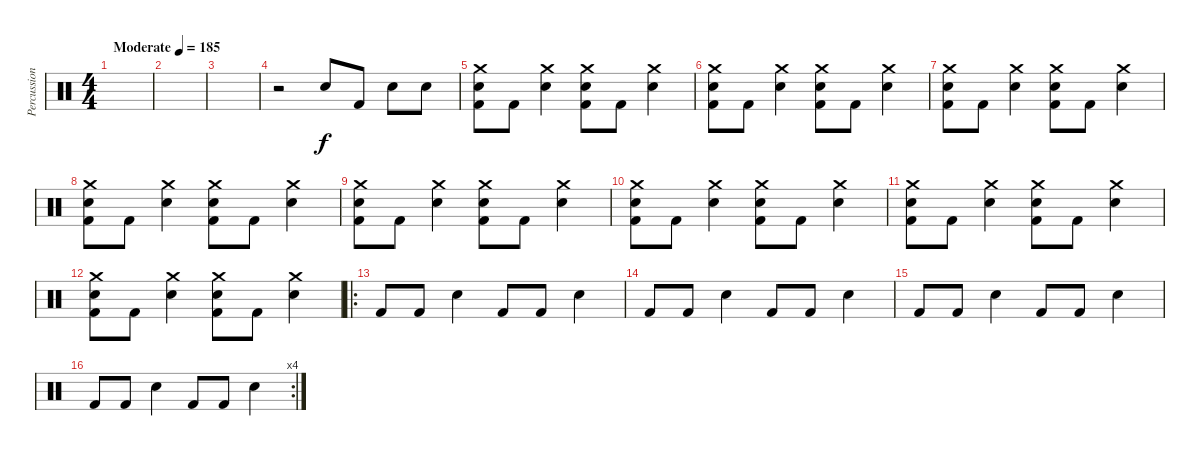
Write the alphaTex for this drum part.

\track ("Percussion" "Percussion") {instrument percussion}
\staff {score}
\articulation defaults
\ts (4 4)
\tempo (185 "Moderate")
\clef neutral
\ks c
|
|
|
r.2 "Snare (hit) 2".8 "Kick (hit) 2".8 "Snare (hit) 2".8 "Snare (hit) 2".8 |
("Crash medium (hit)" "Snare (hit) 2" "Kick (hit) 2").8 "Kick (hit) 2".8 ("Crash medium (hit)" "Snare (hit) 2").4 ("Crash medium (hit)" "Snare (hit) 2" "Kick (hit) 2").8 "Kick (hit) 2".8 ("Crash medium (hit)" "Snare (hit) 2").4 |
("Crash medium (hit)" "Snare (hit) 2" "Kick (hit) 2").8 "Kick (hit) 2".8 ("Crash medium (hit)" "Snare (hit) 2").4 ("Crash medium (hit)" "Snare (hit) 2" "Kick (hit) 2").8 "Kick (hit) 2".8 ("Crash medium (hit)" "Snare (hit) 2").4 |
("Crash medium (hit)" "Snare (hit) 2" "Kick (hit) 2").8 "Kick (hit) 2".8 ("Crash medium (hit)" "Snare (hit) 2").4 ("Crash medium (hit)" "Snare (hit) 2" "Kick (hit) 2").8 "Kick (hit) 2".8 ("Crash medium (hit)" "Snare (hit) 2").4 |
("Crash medium (hit)" "Snare (hit) 2" "Kick (hit) 2").8 "Kick (hit) 2".8 ("Crash medium (hit)" "Snare (hit) 2").4 ("Crash medium (hit)" "Snare (hit) 2" "Kick (hit) 2").8 "Kick (hit) 2".8 ("Crash medium (hit)" "Snare (hit) 2").4 |
("Crash medium (hit)" "Snare (hit) 2" "Kick (hit) 2").8 "Kick (hit) 2".8 ("Crash medium (hit)" "Snare (hit) 2").4 ("Crash medium (hit)" "Snare (hit) 2" "Kick (hit) 2").8 "Kick (hit) 2".8 ("Crash medium (hit)" "Snare (hit) 2").4 |
("Crash medium (hit)" "Snare (hit) 2" "Kick (hit) 2").8 "Kick (hit) 2".8 ("Crash medium (hit)" "Snare (hit) 2").4 ("Crash medium (hit)" "Snare (hit) 2" "Kick (hit) 2").8 "Kick (hit) 2".8 ("Crash medium (hit)" "Snare (hit) 2").4 |
("Crash medium (hit)" "Snare (hit) 2" "Kick (hit) 2").8 "Kick (hit) 2".8 ("Crash medium (hit)" "Snare (hit) 2").4 ("Crash medium (hit)" "Snare (hit) 2" "Kick (hit) 2").8 "Kick (hit) 2".8 ("Crash medium (hit)" "Snare (hit) 2").4 |
("Crash medium (hit)" "Snare (hit) 2" "Kick (hit) 2").8 "Kick (hit) 2".8 ("Crash medium (hit)" "Snare (hit) 2").4 ("Crash medium (hit)" "Snare (hit) 2" "Kick (hit) 2").8 "Kick (hit) 2".8 ("Crash medium (hit)" "Snare (hit) 2").4 |
\ro "Kick (hit) 2".8 "Kick (hit) 2".8 "Snare (hit) 2".4 "Kick (hit) 2".8 "Kick (hit) 2".8 "Snare (hit) 2".4
|
"Kick (hit) 2".8 "Kick (hit) 2".8 "Snare (hit) 2".4 "Kick (hit) 2".8 "Kick (hit) 2".8 "Snare (hit) 2".4 |
"Kick (hit) 2".8 "Kick (hit) 2".8 "Snare (hit) 2".4 "Kick (hit) 2".8 "Kick (hit) 2".8 "Snare (hit) 2".4 |
\rc 4 "Kick (hit) 2".8 "Kick (hit) 2".8 "Snare (hit) 2".4 "Kick (hit) 2".8 "Kick (hit) 2".8 "Snare (hit) 2".4
